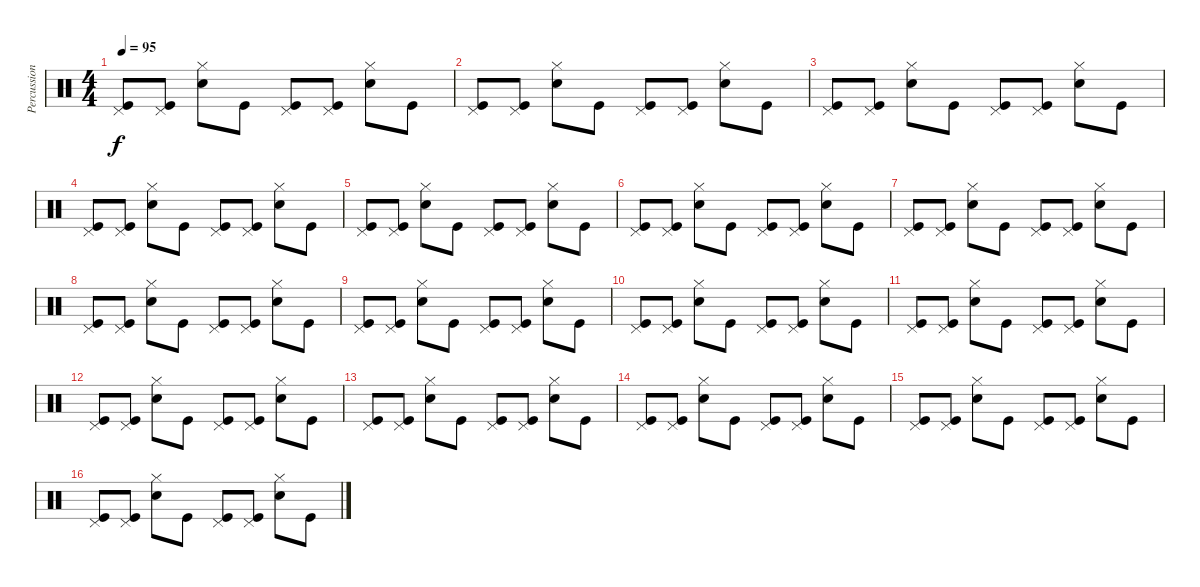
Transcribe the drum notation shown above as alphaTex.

\track ("Percussion" "Percussion") {instrument percussion}
\staff {score}
\articulation defaults
\ts (4 4)
\tempo 95
\clef neutral
\ks c
("Pedal Hi-Hat (hit)" "Kick (hit)").8{dy f} ("Pedal Hi-Hat (hit)" "Kick (hit)").8 ("Hi-Hat (closed)" "Snare (hit) 2").8 "Kick (hit)".8 ("Pedal Hi-Hat (hit)" "Kick (hit)").8 ("Pedal Hi-Hat (hit)" "Kick (hit)").8 ("Hi-Hat (closed)" "Snare (hit) 2").8 "Kick (hit)".8 |
("Pedal Hi-Hat (hit)" "Kick (hit)").8 ("Pedal Hi-Hat (hit)" "Kick (hit)").8 ("Hi-Hat (closed)" "Snare (hit) 2").8 "Kick (hit)".8 ("Pedal Hi-Hat (hit)" "Kick (hit)").8 ("Pedal Hi-Hat (hit)" "Kick (hit)").8 ("Hi-Hat (closed)" "Snare (hit) 2").8 "Kick (hit)".8 |
("Pedal Hi-Hat (hit)" "Kick (hit)").8 ("Pedal Hi-Hat (hit)" "Kick (hit)").8 ("Hi-Hat (closed)" "Snare (hit) 2").8 "Kick (hit)".8 ("Pedal Hi-Hat (hit)" "Kick (hit)").8 ("Pedal Hi-Hat (hit)" "Kick (hit)").8 ("Hi-Hat (closed)" "Snare (hit) 2").8 "Kick (hit)".8 |
("Pedal Hi-Hat (hit)" "Kick (hit)").8 ("Pedal Hi-Hat (hit)" "Kick (hit)").8 ("Hi-Hat (closed)" "Snare (hit) 2").8 "Kick (hit)".8 ("Pedal Hi-Hat (hit)" "Kick (hit)").8 ("Pedal Hi-Hat (hit)" "Kick (hit)").8 ("Hi-Hat (closed)" "Snare (hit) 2").8 "Kick (hit)".8 |
("Pedal Hi-Hat (hit)" "Kick (hit)").8 ("Pedal Hi-Hat (hit)" "Kick (hit)").8 ("Hi-Hat (closed)" "Snare (hit) 2").8 "Kick (hit)".8 ("Pedal Hi-Hat (hit)" "Kick (hit)").8 ("Pedal Hi-Hat (hit)" "Kick (hit)").8 ("Hi-Hat (closed)" "Snare (hit) 2").8 "Kick (hit)".8 |
("Pedal Hi-Hat (hit)" "Kick (hit)").8 ("Pedal Hi-Hat (hit)" "Kick (hit)").8 ("Hi-Hat (closed)" "Snare (hit) 2").8 "Kick (hit)".8 ("Pedal Hi-Hat (hit)" "Kick (hit)").8 ("Pedal Hi-Hat (hit)" "Kick (hit)").8 ("Hi-Hat (closed)" "Snare (hit) 2").8 "Kick (hit)".8 |
("Pedal Hi-Hat (hit)" "Kick (hit)").8 ("Pedal Hi-Hat (hit)" "Kick (hit)").8 ("Hi-Hat (closed)" "Snare (hit) 2").8 "Kick (hit)".8 ("Pedal Hi-Hat (hit)" "Kick (hit)").8 ("Pedal Hi-Hat (hit)" "Kick (hit)").8 ("Hi-Hat (closed)" "Snare (hit) 2").8 "Kick (hit)".8 |
("Pedal Hi-Hat (hit)" "Kick (hit)").8 ("Pedal Hi-Hat (hit)" "Kick (hit)").8 ("Hi-Hat (closed)" "Snare (hit) 2").8 "Kick (hit)".8 ("Pedal Hi-Hat (hit)" "Kick (hit)").8 ("Pedal Hi-Hat (hit)" "Kick (hit)").8 ("Hi-Hat (closed)" "Snare (hit) 2").8 "Kick (hit)".8 |
("Pedal Hi-Hat (hit)" "Kick (hit)").8 ("Pedal Hi-Hat (hit)" "Kick (hit)").8 ("Hi-Hat (closed)" "Snare (hit) 2").8 "Kick (hit)".8 ("Pedal Hi-Hat (hit)" "Kick (hit)").8 ("Pedal Hi-Hat (hit)" "Kick (hit)").8 ("Hi-Hat (closed)" "Snare (hit) 2").8 "Kick (hit)".8 |
("Pedal Hi-Hat (hit)" "Kick (hit)").8 ("Pedal Hi-Hat (hit)" "Kick (hit)").8 ("Hi-Hat (closed)" "Snare (hit) 2").8 "Kick (hit)".8 ("Pedal Hi-Hat (hit)" "Kick (hit)").8 ("Pedal Hi-Hat (hit)" "Kick (hit)").8 ("Hi-Hat (closed)" "Snare (hit) 2").8 "Kick (hit)".8 |
("Pedal Hi-Hat (hit)" "Kick (hit)").8 ("Pedal Hi-Hat (hit)" "Kick (hit)").8 ("Hi-Hat (closed)" "Snare (hit) 2").8 "Kick (hit)".8 ("Pedal Hi-Hat (hit)" "Kick (hit)").8 ("Pedal Hi-Hat (hit)" "Kick (hit)").8 ("Hi-Hat (closed)" "Snare (hit) 2").8 "Kick (hit)".8 |
("Pedal Hi-Hat (hit)" "Kick (hit)").8 ("Pedal Hi-Hat (hit)" "Kick (hit)").8 ("Hi-Hat (closed)" "Snare (hit) 2").8 "Kick (hit)".8 ("Pedal Hi-Hat (hit)" "Kick (hit)").8 ("Pedal Hi-Hat (hit)" "Kick (hit)").8 ("Hi-Hat (closed)" "Snare (hit) 2").8 "Kick (hit)".8 |
("Pedal Hi-Hat (hit)" "Kick (hit)").8 ("Pedal Hi-Hat (hit)" "Kick (hit)").8 ("Hi-Hat (closed)" "Snare (hit) 2").8 "Kick (hit)".8 ("Pedal Hi-Hat (hit)" "Kick (hit)").8 ("Pedal Hi-Hat (hit)" "Kick (hit)").8 ("Hi-Hat (closed)" "Snare (hit) 2").8 "Kick (hit)".8 |
("Pedal Hi-Hat (hit)" "Kick (hit)").8 ("Pedal Hi-Hat (hit)" "Kick (hit)").8 ("Hi-Hat (closed)" "Snare (hit) 2").8 "Kick (hit)".8 ("Pedal Hi-Hat (hit)" "Kick (hit)").8 ("Pedal Hi-Hat (hit)" "Kick (hit)").8 ("Hi-Hat (closed)" "Snare (hit) 2").8 "Kick (hit)".8 |
("Pedal Hi-Hat (hit)" "Kick (hit)").8 ("Pedal Hi-Hat (hit)" "Kick (hit)").8 ("Hi-Hat (closed)" "Snare (hit) 2").8 "Kick (hit)".8 ("Pedal Hi-Hat (hit)" "Kick (hit)").8 ("Pedal Hi-Hat (hit)" "Kick (hit)").8 ("Hi-Hat (closed)" "Snare (hit) 2").8 "Kick (hit)".8 |
("Pedal Hi-Hat (hit)" "Kick (hit)").8 ("Pedal Hi-Hat (hit)" "Kick (hit)").8 ("Hi-Hat (closed)" "Snare (hit) 2").8 "Kick (hit)".8 ("Pedal Hi-Hat (hit)" "Kick (hit)").8 ("Pedal Hi-Hat (hit)" "Kick (hit)").8 ("Hi-Hat (closed)" "Snare (hit) 2").8 "Kick (hit)".8
